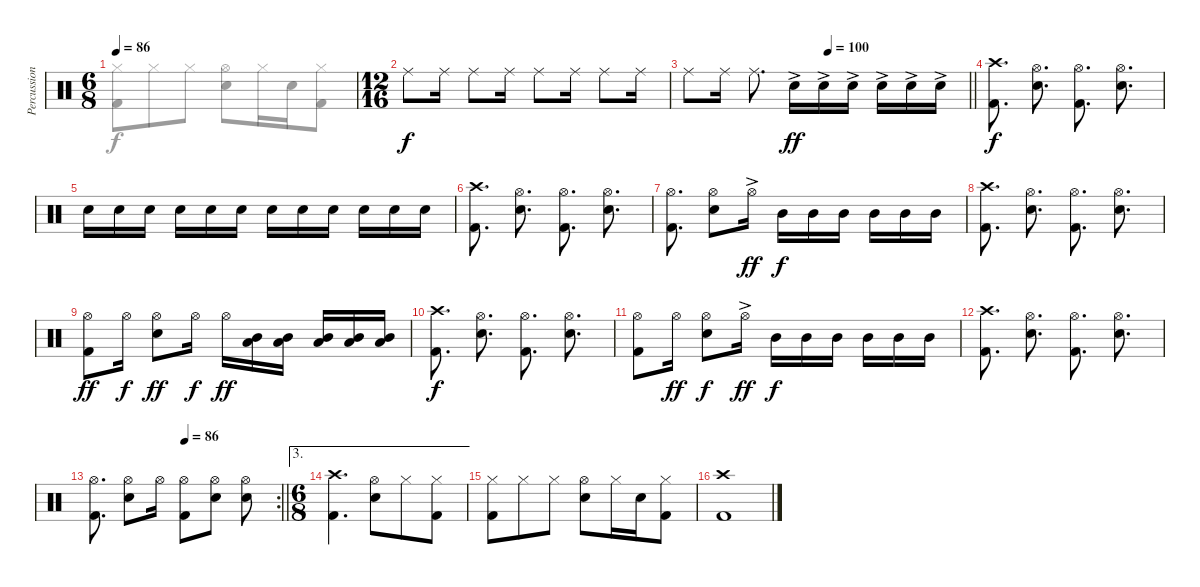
\track ("Percussion" "Percussion") {instrument percussion}
\staff {score}
\articulation defaults
\voice
\ts (6 8)
\tempo 86
\clef neutral
\ks c
|
\ts (12 16)
"Ride (middle)".8 "Ride (middle)".16 "Ride (middle)".8 "Ride (middle)".16 "Ride (middle)".8 "Ride (middle)".16 "Ride (middle)".8 "Ride (middle)".16 |
\tempo (100 0.5)
\barLineRight lightlight "Ride (middle)".8 "Ride (middle)".16 "Ride (middle)".8{d} "Snare (hit) 2"{ac}.16{dy ff} "Snare (hit) 2"{ac}.16 "Snare (hit) 2"{ac}.16 "Snare (hit) 2"{ac}.16 "Snare (hit) 2"{ac}.16 "Snare (hit) 2"{ac}.16
|
("Crash high (hit)" "Kick (hit) 2").8{d dy f} ("Hi-Hat (open)" "Snare (hit) 2").8{d} ("Hi-Hat (open)" "Kick (hit) 2").8{d} ("Hi-Hat (open)" "Snare (hit) 2").8{d} |
"Snare (hit) 2".16 "Snare (hit) 2".16 "Snare (hit) 2".16 "Snare (hit) 2".16 "Snare (hit) 2".16 "Snare (hit) 2".16 "Snare (hit) 2".16 "Snare (hit) 2".16 "Snare (hit) 2".16 "Snare (hit) 2".16 "Snare (hit) 2".16 "Snare (hit) 2".16 |
("Crash high (hit)" "Kick (hit) 2").8{d} ("Hi-Hat (open)" "Snare (hit) 2").8{d} ("Hi-Hat (open)" "Kick (hit) 2").8{d} ("Hi-Hat (open)" "Snare (hit) 2").8{d} |
("Hi-Hat (open)" "Kick (hit) 2").8{d} ("Hi-Hat (open)" "Snare (hit) 2").8 "Hi-Hat (open)"{ac}.16{dy ff} "Mid Tom (hit)".16{dy f} "Mid Tom (hit)".16 "Mid Tom (hit)".16 "Mid Tom (hit)".16 "Mid Tom (hit)".16 "Mid Tom (hit)".16 |
("Crash high (hit)" "Kick (hit) 2").8{d} ("Hi-Hat (open)" "Snare (hit) 2").8{d} ("Hi-Hat (open)" "Kick (hit) 2").8{d} ("Hi-Hat (open)" "Snare (hit) 2").8{d} |
("Hi-Hat (open)" "Kick (hit) 2").8{dy ff} "Hi-Hat (open)".16{dy f} ("Hi-Hat (open)" "Snare (hit) 2").8{dy ff} "Hi-Hat (open)".16{dy f} "Hi-Hat (open)".16{dy ff} ("Mid Tom (hit)" "Low Floor Tom (hit)").16 ("Mid Tom (hit)" "Low Floor Tom (hit)").16 ("Mid Tom (hit)" "Low Floor Tom (hit)").16 ("Mid Tom (hit)" "Low Floor Tom (hit)").16 ("Mid Tom (hit)" "Low Floor Tom (hit)").16 |
("Crash high (hit)" "Kick (hit) 2").8{d dy f} ("Hi-Hat (open)" "Snare (hit) 2").8{d} ("Hi-Hat (open)" "Kick (hit) 2").8{d} ("Hi-Hat (open)" "Snare (hit) 2").8{d} |
("Hi-Hat (open)" "Kick (hit) 2").8 "Hi-Hat (open)".16{dy ff} ("Hi-Hat (open)" "Snare (hit) 2").8{dy f} "Hi-Hat (open)"{ac}.16{dy ff} "Mid Tom (hit)".16{dy f} "Mid Tom (hit)".16 "Mid Tom (hit)".16 "Mid Tom (hit)".16 "Mid Tom (hit)".16 "Mid Tom (hit)".16 |
("Crash high (hit)" "Kick (hit) 2").8{d} ("Hi-Hat (open)" "Snare (hit) 2").8{d} ("Hi-Hat (open)" "Kick (hit) 2").8{d} ("Hi-Hat (open)" "Snare (hit) 2").8{d} |
\rc 2
\tempo (86 0.5)
\barLineRight lightlight
("Hi-Hat (open)" "Kick (hit) 2").8{d} ("Hi-Hat (open)" "Snare (hit) 2").8 "Hi-Hat (open)".16 ("Hi-Hat (open)" "Kick (hit) 2").8 ("Hi-Hat (open)" "Snare (hit) 2").8 ("Hi-Hat (open)" "Snare (hit) 2").8 |
\ae 3
\ts (6 8)
("Crash high (hit)" "Kick (hit) 2").4{d} ("Hi-Hat (open)" "Snare (hit) 2").8 "Hi-Hat (closed)".8 ("Hi-Hat (closed)" "Kick (hit) 2").8 |
("Hi-Hat (closed)" "Kick (hit) 2").8 "Hi-Hat (closed)".8 "Hi-Hat (closed)".8 ("Hi-Hat (open)" "Snare (hit) 2").8 "Hi-Hat (closed)".16 "Snare (hit) 2".16 ("Hi-Hat (closed)" "Kick (hit) 2").8 |
("Crash high (hit)" "Kick (hit) 2").1
\voice
\clef neutral
\ottava regular
\simile none
\ks c
("Hi-Hat (closed)" "Kick (hit) 2").8{dy f} "Hi-Hat (closed)".8 "Hi-Hat (closed)".8 ("Hi-Hat (open)" "Snare (hit) 2").8 "Hi-Hat (closed)".16 "Snare (hit) 2".16 ("Hi-Hat (closed)" "Kick (hit) 2").8 |
|
\barLineRight lightlight
|
|
|
|
|
|
|
|
|
|
\barLineRight lightlight
|
|
|
